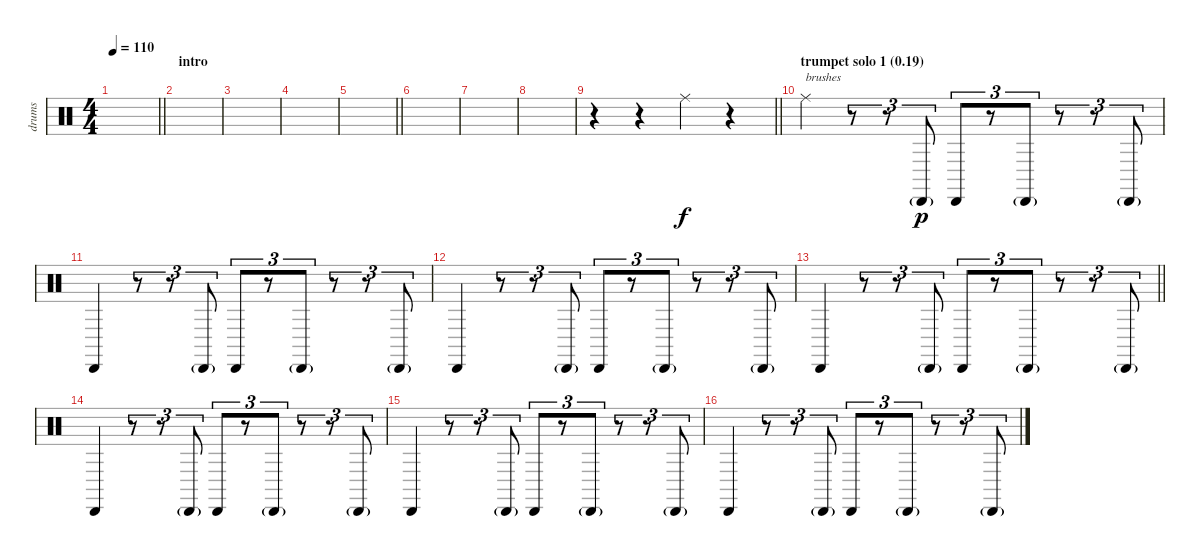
\track ("drums" "drums") {instrument percussion}
\staff {score}
\articulation defaults
\ts (4 4)
\tempo 110
\clef neutral
\barLineRight lightlight
\ks c
|
\section ("" "intro")
|
|
|
\barLineRight lightlight
|
|
|
|
\barLineRight lightlight
r.4 r.4 "Ride (middle)".4 r.4 |
\section ("" "trumpet solo 1 (0.19)")
"Ride (middle)".4{txt "brushes"} r.8{tu (3 2)} r.8{tu (3 2)} "Cabasa (hit)"{g}.8{tu (3 2) dy p} "Cabasa (hit)".8{tu (3 2)} r.8{tu (3 2)} "Cabasa (hit)"{g}.8{tu (3 2)} r.8{tu (3 2)} r.8{tu (3 2)} "Cabasa (hit)"{g}.8{tu (3 2)} |
"Cabasa (hit)".4 r.8{tu (3 2)} r.8{tu (3 2)} "Cabasa (hit)"{g}.8{tu (3 2)} "Cabasa (hit)".8{tu (3 2)} r.8{tu (3 2)} "Cabasa (hit)"{g}.8{tu (3 2)} r.8{tu (3 2)} r.8{tu (3 2)} "Cabasa (hit)"{g}.8{tu (3 2)} |
"Cabasa (hit)".4 r.8{tu (3 2)} r.8{tu (3 2)} "Cabasa (hit)"{g}.8{tu (3 2)} "Cabasa (hit)".8{tu (3 2)} r.8{tu (3 2)} "Cabasa (hit)"{g}.8{tu (3 2)} r.8{tu (3 2)} r.8{tu (3 2)} "Cabasa (hit)"{g}.8{tu (3 2)} |
\barLineRight lightlight "Cabasa (hit)".4
r.8{tu (3 2)} r.8{tu (3 2)} "Cabasa (hit)"{g}.8{tu (3 2)} "Cabasa (hit)".8{tu (3 2)} r.8{tu (3 2)} "Cabasa (hit)"{g}.8{tu (3 2)} r.8{tu (3 2)} r.8{tu (3 2)} "Cabasa (hit)"{g}.8{tu (3 2)} |
"Cabasa (hit)".4 r.8{tu (3 2)} r.8{tu (3 2)} "Cabasa (hit)"{g}.8{tu (3 2)} "Cabasa (hit)".8{tu (3 2)} r.8{tu (3 2)} "Cabasa (hit)"{g}.8{tu (3 2)} r.8{tu (3 2)} r.8{tu (3 2)} "Cabasa (hit)"{g}.8{tu (3 2)} |
"Cabasa (hit)".4 r.8{tu (3 2)} r.8{tu (3 2)} "Cabasa (hit)"{g}.8{tu (3 2)} "Cabasa (hit)".8{tu (3 2)} r.8{tu (3 2)} "Cabasa (hit)"{g}.8{tu (3 2)} r.8{tu (3 2)} r.8{tu (3 2)} "Cabasa (hit)"{g}.8{tu (3 2)} |
"Cabasa (hit)".4 r.8{tu (3 2)} r.8{tu (3 2)} "Cabasa (hit)"{g}.8{tu (3 2)} "Cabasa (hit)".8{tu (3 2)} r.8{tu (3 2)} "Cabasa (hit)"{g}.8{tu (3 2)} r.8{tu (3 2)} r.8{tu (3 2)} "Cabasa (hit)"{g}.8{tu (3 2)}
